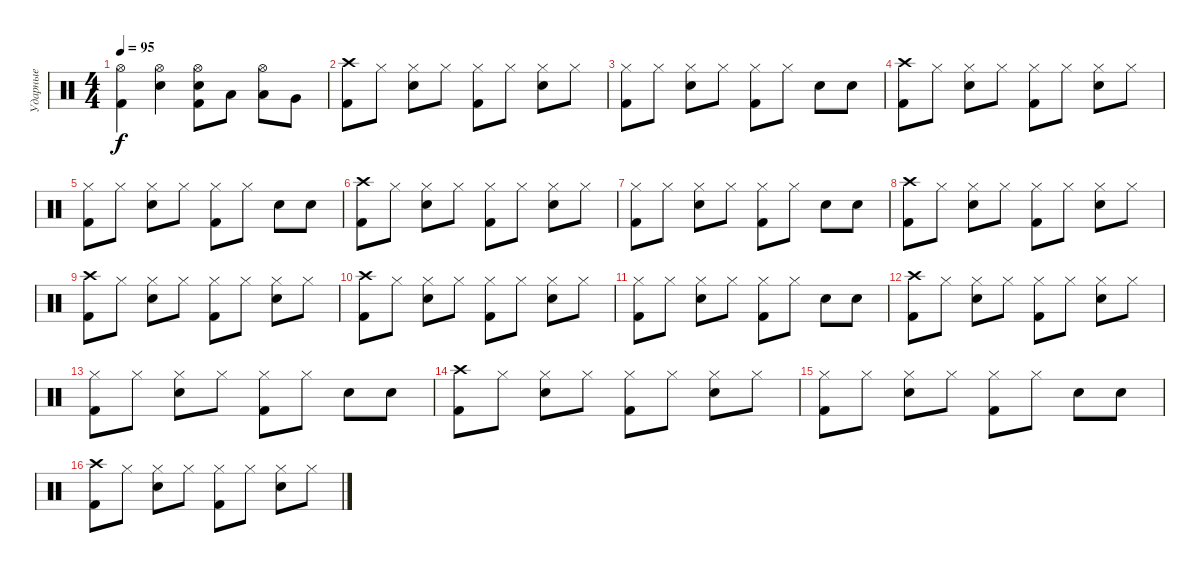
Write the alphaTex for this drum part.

\track ("Ударные" "Ударные") {instrument percussion}
\staff {score}
\articulation defaults
\ts (4 4)
\tempo 95
\clef neutral
\ks c
("Hi-Hat (open)" "Kick (hit) 2").4{dy f} ("Hi-Hat (open)" "Snare (hit) 2").4 ("Hi-Hat (open)" "Snare (hit) 2" "Kick (hit) 2").8 "Low Floor Tom (hit)".8 ("Hi-Hat (open)" "Low Floor Tom (hit)").8 "Very Low Tom (hit)".8 |
("Crash high (hit)" "Kick (hit) 2").8 "Hi-Hat (closed)".8 ("Hi-Hat (closed)" "Snare (hit) 2").8 "Hi-Hat (closed)".8 ("Hi-Hat (closed)" "Kick (hit) 2").8 "Hi-Hat (closed)".8 ("Hi-Hat (closed)" "Snare (hit) 2").8 "Hi-Hat (closed)".8 |
("Hi-Hat (closed)" "Kick (hit) 2").8 "Hi-Hat (closed)".8 ("Hi-Hat (closed)" "Snare (hit) 2").8 "Hi-Hat (closed)".8 ("Hi-Hat (closed)" "Kick (hit) 2").8 "Hi-Hat (closed)".8 "Snare (hit) 2".8 "Snare (hit) 2".8 |
("Crash high (hit)" "Kick (hit) 2").8 "Hi-Hat (closed)".8 ("Hi-Hat (closed)" "Snare (hit) 2").8 "Hi-Hat (closed)".8 ("Hi-Hat (closed)" "Kick (hit) 2").8 "Hi-Hat (closed)".8 ("Hi-Hat (closed)" "Snare (hit) 2").8 "Hi-Hat (closed)".8 |
("Hi-Hat (closed)" "Kick (hit) 2").8 "Hi-Hat (closed)".8 ("Hi-Hat (closed)" "Snare (hit) 2").8 "Hi-Hat (closed)".8 ("Hi-Hat (closed)" "Kick (hit) 2").8 "Hi-Hat (closed)".8 "Snare (hit) 2".8 "Snare (hit) 2".8 |
("Crash high (hit)" "Kick (hit) 2").8 "Hi-Hat (closed)".8 ("Hi-Hat (closed)" "Snare (hit) 2").8 "Hi-Hat (closed)".8 ("Hi-Hat (closed)" "Kick (hit) 2").8 "Hi-Hat (closed)".8 ("Hi-Hat (closed)" "Snare (hit) 2").8 "Hi-Hat (closed)".8 |
("Hi-Hat (closed)" "Kick (hit) 2").8 "Hi-Hat (closed)".8 ("Hi-Hat (closed)" "Snare (hit) 2").8 "Hi-Hat (closed)".8 ("Hi-Hat (closed)" "Kick (hit) 2").8 "Hi-Hat (closed)".8 "Snare (hit) 2".8 "Snare (hit) 2".8 |
("Crash high (hit)" "Kick (hit) 2").8 "Hi-Hat (closed)".8 ("Hi-Hat (closed)" "Snare (hit) 2").8 "Hi-Hat (closed)".8 ("Hi-Hat (closed)" "Kick (hit) 2").8 "Hi-Hat (closed)".8 ("Hi-Hat (closed)" "Snare (hit) 2").8 "Hi-Hat (closed)".8 |
("Crash high (hit)" "Kick (hit) 2").8 "Hi-Hat (closed)".8 ("Hi-Hat (closed)" "Snare (hit) 2").8 "Hi-Hat (closed)".8 ("Hi-Hat (closed)" "Kick (hit) 2").8 "Hi-Hat (closed)".8 ("Hi-Hat (closed)" "Snare (hit) 2").8 "Hi-Hat (closed)".8 |
("Crash high (hit)" "Kick (hit) 2").8 "Hi-Hat (closed)".8 ("Hi-Hat (closed)" "Snare (hit) 2").8 "Hi-Hat (closed)".8 ("Hi-Hat (closed)" "Kick (hit) 2").8 "Hi-Hat (closed)".8 ("Hi-Hat (closed)" "Snare (hit) 2").8 "Hi-Hat (closed)".8 |
("Hi-Hat (closed)" "Kick (hit) 2").8 "Hi-Hat (closed)".8 ("Hi-Hat (closed)" "Snare (hit) 2").8 "Hi-Hat (closed)".8 ("Hi-Hat (closed)" "Kick (hit) 2").8 "Hi-Hat (closed)".8 "Snare (hit) 2".8 "Snare (hit) 2".8 |
("Crash high (hit)" "Kick (hit) 2").8 "Hi-Hat (closed)".8 ("Hi-Hat (closed)" "Snare (hit) 2").8 "Hi-Hat (closed)".8 ("Hi-Hat (closed)" "Kick (hit) 2").8 "Hi-Hat (closed)".8 ("Hi-Hat (closed)" "Snare (hit) 2").8 "Hi-Hat (closed)".8 |
("Hi-Hat (closed)" "Kick (hit) 2").8 "Hi-Hat (closed)".8 ("Hi-Hat (closed)" "Snare (hit) 2").8 "Hi-Hat (closed)".8 ("Hi-Hat (closed)" "Kick (hit) 2").8 "Hi-Hat (closed)".8 "Snare (hit) 2".8 "Snare (hit) 2".8 |
("Crash high (hit)" "Kick (hit) 2").8 "Hi-Hat (closed)".8 ("Hi-Hat (closed)" "Snare (hit) 2").8 "Hi-Hat (closed)".8 ("Hi-Hat (closed)" "Kick (hit) 2").8 "Hi-Hat (closed)".8 ("Hi-Hat (closed)" "Snare (hit) 2").8 "Hi-Hat (closed)".8 |
("Hi-Hat (closed)" "Kick (hit) 2").8 "Hi-Hat (closed)".8 ("Hi-Hat (closed)" "Snare (hit) 2").8 "Hi-Hat (closed)".8 ("Hi-Hat (closed)" "Kick (hit) 2").8 "Hi-Hat (closed)".8 "Snare (hit) 2".8 "Snare (hit) 2".8 |
("Crash high (hit)" "Kick (hit) 2").8 "Hi-Hat (closed)".8 ("Hi-Hat (closed)" "Snare (hit) 2").8 "Hi-Hat (closed)".8 ("Hi-Hat (closed)" "Kick (hit) 2").8 "Hi-Hat (closed)".8 ("Hi-Hat (closed)" "Snare (hit) 2").8 "Hi-Hat (closed)".8
